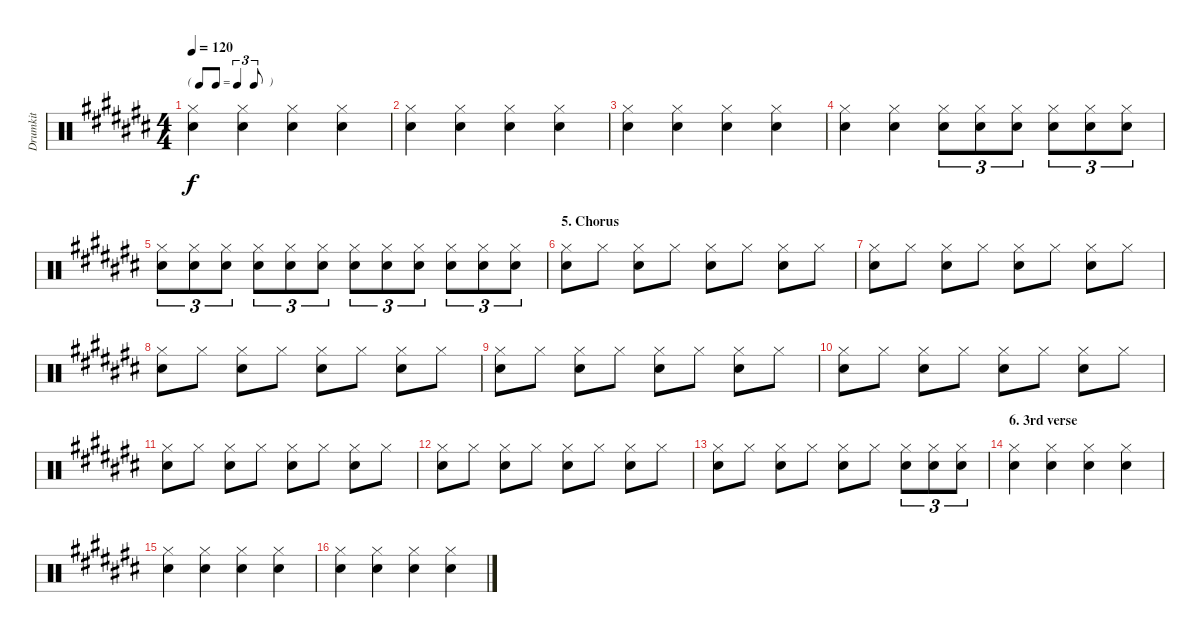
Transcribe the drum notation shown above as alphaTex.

\track ("Drumkit" "Drumkit") {instrument percussion}
\staff {score}
\articulation defaults
\ts (4 4)
\tf triplet8th
\tempo 120
\clef neutral
\ks c#
("Snare (hit) 2" "Hi-Hat (closed)").4{dy f} ("Snare (hit) 2" "Hi-Hat (closed)").4 ("Snare (hit) 2" "Hi-Hat (closed)").4 ("Snare (hit) 2" "Hi-Hat (closed)").4 |
("Snare (hit) 2" "Hi-Hat (closed)").4 ("Snare (hit) 2" "Hi-Hat (closed)").4 ("Snare (hit) 2" "Hi-Hat (closed)").4 ("Snare (hit) 2" "Hi-Hat (closed)").4 |
("Snare (hit) 2" "Hi-Hat (closed)").4 ("Snare (hit) 2" "Hi-Hat (closed)").4 ("Snare (hit) 2" "Hi-Hat (closed)").4 ("Snare (hit) 2" "Hi-Hat (closed)").4 |
("Snare (hit) 2" "Hi-Hat (closed)").4 ("Snare (hit) 2" "Hi-Hat (closed)").4 ("Snare (hit) 2" "Hi-Hat (closed)").8{tu (3 2)} ("Snare (hit) 2" "Hi-Hat (closed)").8{tu (3 2)} ("Snare (hit) 2" "Hi-Hat (closed)").8{tu (3 2)} ("Snare (hit) 2" "Hi-Hat (closed)").8{tu (3 2)} ("Snare (hit) 2" "Hi-Hat (closed)").8{tu (3 2)} ("Snare (hit) 2" "Hi-Hat (closed)").8{tu (3 2)} |
("Snare (hit) 2" "Hi-Hat (closed)").8{tu (3 2)} ("Snare (hit) 2" "Hi-Hat (closed)").8{tu (3 2)} ("Snare (hit) 2" "Hi-Hat (closed)").8{tu (3 2)} ("Snare (hit) 2" "Hi-Hat (closed)").8{tu (3 2)} ("Snare (hit) 2" "Hi-Hat (closed)").8{tu (3 2)} ("Snare (hit) 2" "Hi-Hat (closed)").8{tu (3 2)} ("Snare (hit) 2" "Hi-Hat (closed)").8{tu (3 2)} ("Snare (hit) 2" "Hi-Hat (closed)").8{tu (3 2)} ("Snare (hit) 2" "Hi-Hat (closed)").8{tu (3 2)} ("Snare (hit) 2" "Hi-Hat (closed)").8{tu (3 2)} ("Snare (hit) 2" "Hi-Hat (closed)").8{tu (3 2)} ("Snare (hit) 2" "Hi-Hat (closed)").8{tu (3 2)} |
\section ("" "5. Chorus")
("Snare (hit) 2" "Hi-Hat (closed)").8 "Hi-Hat (closed)".8 ("Snare (hit) 2" "Hi-Hat (closed)").8 "Hi-Hat (closed)".8 ("Snare (hit) 2" "Hi-Hat (closed)").8 "Hi-Hat (closed)".8 ("Snare (hit) 2" "Hi-Hat (closed)").8 "Hi-Hat (closed)".8 |
("Snare (hit) 2" "Hi-Hat (closed)").8 "Hi-Hat (closed)".8 ("Snare (hit) 2" "Hi-Hat (closed)").8 "Hi-Hat (closed)".8 ("Snare (hit) 2" "Hi-Hat (closed)").8 "Hi-Hat (closed)".8 ("Snare (hit) 2" "Hi-Hat (closed)").8 "Hi-Hat (closed)".8 |
("Snare (hit) 2" "Hi-Hat (closed)").8 "Hi-Hat (closed)".8 ("Snare (hit) 2" "Hi-Hat (closed)").8 "Hi-Hat (closed)".8 ("Snare (hit) 2" "Hi-Hat (closed)").8 "Hi-Hat (closed)".8 ("Snare (hit) 2" "Hi-Hat (closed)").8 "Hi-Hat (closed)".8 |
("Snare (hit) 2" "Hi-Hat (closed)").8 "Hi-Hat (closed)".8 ("Snare (hit) 2" "Hi-Hat (closed)").8 "Hi-Hat (closed)".8 ("Snare (hit) 2" "Hi-Hat (closed)").8 "Hi-Hat (closed)".8 ("Snare (hit) 2" "Hi-Hat (closed)").8 "Hi-Hat (closed)".8 |
("Snare (hit) 2" "Hi-Hat (closed)").8 "Hi-Hat (closed)".8 ("Snare (hit) 2" "Hi-Hat (closed)").8 "Hi-Hat (closed)".8 ("Snare (hit) 2" "Hi-Hat (closed)").8 "Hi-Hat (closed)".8 ("Snare (hit) 2" "Hi-Hat (closed)").8 "Hi-Hat (closed)".8 |
("Snare (hit) 2" "Hi-Hat (closed)").8 "Hi-Hat (closed)".8 ("Snare (hit) 2" "Hi-Hat (closed)").8 "Hi-Hat (closed)".8 ("Snare (hit) 2" "Hi-Hat (closed)").8 "Hi-Hat (closed)".8 ("Snare (hit) 2" "Hi-Hat (closed)").8 "Hi-Hat (closed)".8 |
("Snare (hit) 2" "Hi-Hat (closed)").8 "Hi-Hat (closed)".8 ("Snare (hit) 2" "Hi-Hat (closed)").8 "Hi-Hat (closed)".8 ("Snare (hit) 2" "Hi-Hat (closed)").8 "Hi-Hat (closed)".8 ("Snare (hit) 2" "Hi-Hat (closed)").8 "Hi-Hat (closed)".8 |
("Snare (hit) 2" "Hi-Hat (closed)").8 "Hi-Hat (closed)".8 ("Snare (hit) 2" "Hi-Hat (closed)").8 "Hi-Hat (closed)".8 ("Snare (hit) 2" "Hi-Hat (closed)").8 "Hi-Hat (closed)".8 ("Hi-Hat (closed)" "Snare (hit) 2").8{tu (3 2)} ("Hi-Hat (closed)" "Snare (hit) 2").8{tu (3 2)} ("Hi-Hat (closed)" "Snare (hit) 2").8{tu (3 2)} |
\section ("" "6. 3rd verse")
("Snare (hit) 2" "Hi-Hat (closed)").4 ("Snare (hit) 2" "Hi-Hat (closed)").4 ("Snare (hit) 2" "Hi-Hat (closed)").4 ("Snare (hit) 2" "Hi-Hat (closed)").4 |
("Snare (hit) 2" "Hi-Hat (closed)").4 ("Snare (hit) 2" "Hi-Hat (closed)").4 ("Snare (hit) 2" "Hi-Hat (closed)").4 ("Snare (hit) 2" "Hi-Hat (closed)").4 |
("Snare (hit) 2" "Hi-Hat (closed)").4 ("Snare (hit) 2" "Hi-Hat (closed)").4 ("Snare (hit) 2" "Hi-Hat (closed)").4 ("Snare (hit) 2" "Hi-Hat (closed)").4
